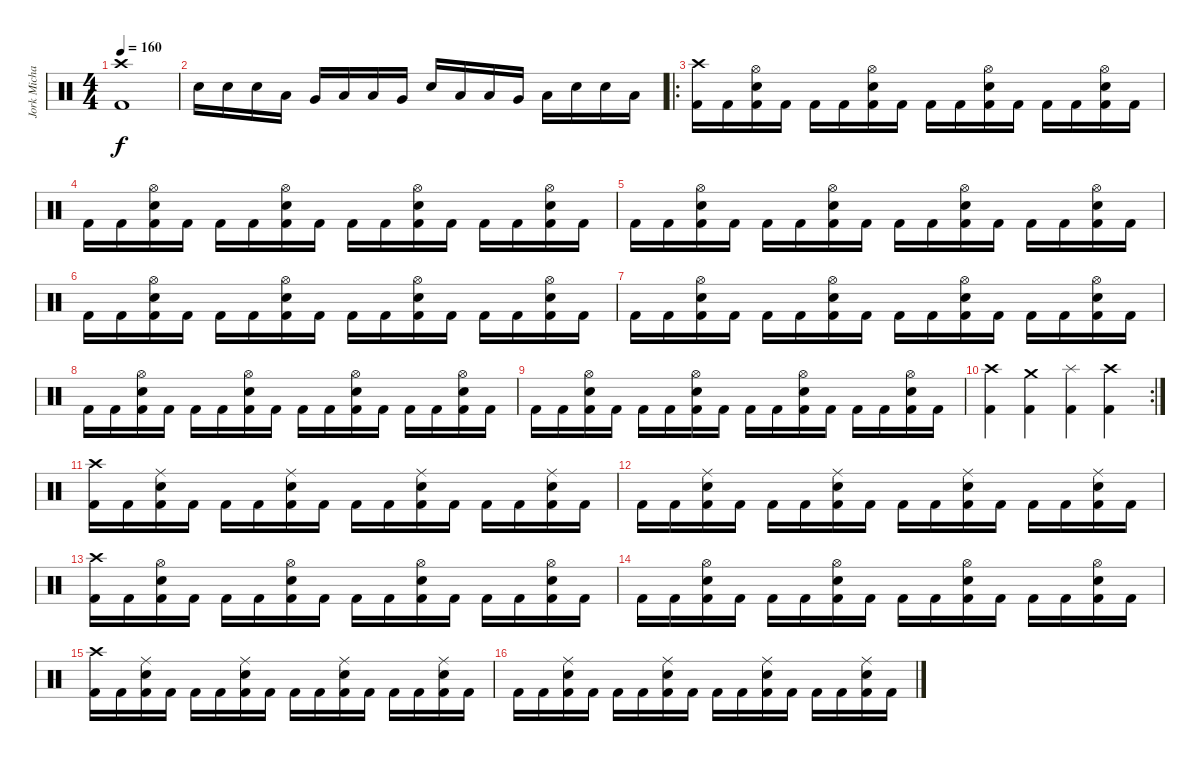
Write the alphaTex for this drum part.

\track ("Jork Michael" "Jork Micha") {instrument percussion}
\staff {score}
\articulation defaults
\ts (4 4)
\tempo 160
\clef neutral
\ks c
("Crash high (hit)" "Kick (hit) 2").1{dy f} |
"Electric Snare (hit)".16 "Electric Snare (hit)".16 "Electric Snare (hit)".16 "Low Floor Tom (hit)".16 "Very Low Tom (hit)".16 "Low Tom (hit)".16 "Low Floor Tom (hit)".16 "Very Low Tom (hit)".16 "Electric Snare (hit)".16 "Low Floor Tom (hit)".16 "Low Tom (hit)".16 "Very Low Tom (hit)".16 "Low Floor Tom (hit)".16 "Electric Snare (hit)".16 "Electric Snare (hit)".16 "Low Floor Tom (hit)".16 |
\ro
("Crash high (hit)" "Kick (hit) 2").16 "Kick (hit) 2".16 ("Hi-Hat (open)" "Electric Snare (hit)" "Kick (hit) 2").16 "Kick (hit) 2".16 "Kick (hit) 2".16 "Kick (hit) 2".16 ("Hi-Hat (open)" "Electric Snare (hit)" "Kick (hit) 2").16 "Kick (hit) 2".16 "Kick (hit) 2".16 "Kick (hit) 2".16 ("Hi-Hat (open)" "Electric Snare (hit)" "Kick (hit) 2").16 "Kick (hit) 2".16 "Kick (hit) 2".16 "Kick (hit) 2".16 ("Hi-Hat (open)" "Electric Snare (hit)" "Kick (hit) 2").16 "Kick (hit) 2".16 |
"Kick (hit) 2".16 "Kick (hit) 2".16 ("Hi-Hat (open)" "Electric Snare (hit)" "Kick (hit) 2").16 "Kick (hit) 2".16 "Kick (hit) 2".16 "Kick (hit) 2".16 ("Hi-Hat (open)" "Electric Snare (hit)" "Kick (hit) 2").16 "Kick (hit) 2".16 "Kick (hit) 2".16 "Kick (hit) 2".16 ("Hi-Hat (open)" "Electric Snare (hit)" "Kick (hit) 2").16 "Kick (hit) 2".16 "Kick (hit) 2".16 "Kick (hit) 2".16 ("Hi-Hat (open)" "Electric Snare (hit)" "Kick (hit) 2").16 "Kick (hit) 2".16 |
"Kick (hit) 2".16 "Kick (hit) 2".16 ("Hi-Hat (open)" "Electric Snare (hit)" "Kick (hit) 2").16 "Kick (hit) 2".16 "Kick (hit) 2".16 "Kick (hit) 2".16 ("Hi-Hat (open)" "Electric Snare (hit)" "Kick (hit) 2").16 "Kick (hit) 2".16 "Kick (hit) 2".16 "Kick (hit) 2".16 ("Hi-Hat (open)" "Electric Snare (hit)" "Kick (hit) 2").16 "Kick (hit) 2".16 "Kick (hit) 2".16 "Kick (hit) 2".16 ("Hi-Hat (open)" "Electric Snare (hit)" "Kick (hit) 2").16 "Kick (hit) 2".16 |
"Kick (hit) 2".16 "Kick (hit) 2".16 ("Hi-Hat (open)" "Electric Snare (hit)" "Kick (hit) 2").16 "Kick (hit) 2".16 "Kick (hit) 2".16 "Kick (hit) 2".16 ("Hi-Hat (open)" "Electric Snare (hit)" "Kick (hit) 2").16 "Kick (hit) 2".16 "Kick (hit) 2".16 "Kick (hit) 2".16 ("Hi-Hat (open)" "Electric Snare (hit)" "Kick (hit) 2").16 "Kick (hit) 2".16 "Kick (hit) 2".16 "Kick (hit) 2".16 ("Hi-Hat (open)" "Electric Snare (hit)" "Kick (hit) 2").16 "Kick (hit) 2".16 |
"Kick (hit) 2".16 "Kick (hit) 2".16 ("Hi-Hat (open)" "Electric Snare (hit)" "Kick (hit) 2").16 "Kick (hit) 2".16 "Kick (hit) 2".16 "Kick (hit) 2".16 ("Hi-Hat (open)" "Electric Snare (hit)" "Kick (hit) 2").16 "Kick (hit) 2".16 "Kick (hit) 2".16 "Kick (hit) 2".16 ("Hi-Hat (open)" "Electric Snare (hit)" "Kick (hit) 2").16 "Kick (hit) 2".16 "Kick (hit) 2".16 "Kick (hit) 2".16 ("Hi-Hat (open)" "Electric Snare (hit)" "Kick (hit) 2").16 "Kick (hit) 2".16 |
"Kick (hit) 2".16 "Kick (hit) 2".16 ("Hi-Hat (open)" "Electric Snare (hit)" "Kick (hit) 2").16 "Kick (hit) 2".16 "Kick (hit) 2".16 "Kick (hit) 2".16 ("Hi-Hat (open)" "Electric Snare (hit)" "Kick (hit) 2").16 "Kick (hit) 2".16 "Kick (hit) 2".16 "Kick (hit) 2".16 ("Hi-Hat (open)" "Electric Snare (hit)" "Kick (hit) 2").16 "Kick (hit) 2".16 "Kick (hit) 2".16 "Kick (hit) 2".16 ("Hi-Hat (open)" "Electric Snare (hit)" "Kick (hit) 2").16 "Kick (hit) 2".16 |
"Kick (hit) 2".16 "Kick (hit) 2".16 ("Hi-Hat (open)" "Electric Snare (hit)" "Kick (hit) 2").16 "Kick (hit) 2".16 "Kick (hit) 2".16 "Kick (hit) 2".16 ("Hi-Hat (open)" "Electric Snare (hit)" "Kick (hit) 2").16 "Kick (hit) 2".16 "Kick (hit) 2".16 "Kick (hit) 2".16 ("Hi-Hat (open)" "Electric Snare (hit)" "Kick (hit) 2").16 "Kick (hit) 2".16 "Kick (hit) 2".16 "Kick (hit) 2".16 ("Hi-Hat (open)" "Electric Snare (hit)" "Kick (hit) 2").16 "Kick (hit) 2".16 |
\rc 2
("Crash high (hit)" "Kick (hit) 2").4 ("Crash medium (hit)" "Kick (hit) 2").4 ("Splash (hit)" "Kick (hit) 2").4 ("Crash high (hit)" "Kick (hit) 2").4 |
("Crash high (hit)" "Kick (hit) 2").16 "Kick (hit) 2".16 ("Ride (middle)" "Electric Snare (hit)" "Kick (hit) 2").16 "Kick (hit) 2".16 "Kick (hit) 2".16 "Kick (hit) 2".16 ("Ride (middle)" "Electric Snare (hit)" "Kick (hit) 2").16 "Kick (hit) 2".16 "Kick (hit) 2".16 "Kick (hit) 2".16 ("Ride (middle)" "Electric Snare (hit)" "Kick (hit) 2").16 "Kick (hit) 2".16 "Kick (hit) 2".16 "Kick (hit) 2".16 ("Ride (middle)" "Electric Snare (hit)" "Kick (hit) 2").16 "Kick (hit) 2".16 |
"Kick (hit) 2".16 "Kick (hit) 2".16 ("Ride (middle)" "Electric Snare (hit)" "Kick (hit) 2").16 "Kick (hit) 2".16 "Kick (hit) 2".16 "Kick (hit) 2".16 ("Ride (middle)" "Electric Snare (hit)" "Kick (hit) 2").16 "Kick (hit) 2".16 "Kick (hit) 2".16 "Kick (hit) 2".16 ("Ride (middle)" "Electric Snare (hit)" "Kick (hit) 2").16 "Kick (hit) 2".16 "Kick (hit) 2".16 "Kick (hit) 2".16 ("Ride (middle)" "Electric Snare (hit)" "Kick (hit) 2").16 "Kick (hit) 2".16 |
("Crash high (hit)" "Kick (hit) 2").16 "Kick (hit) 2".16 ("Hi-Hat (open)" "Electric Snare (hit)" "Kick (hit) 2").16 "Kick (hit) 2".16 "Kick (hit) 2".16 "Kick (hit) 2".16 ("Hi-Hat (open)" "Electric Snare (hit)" "Kick (hit) 2").16 "Kick (hit) 2".16 "Kick (hit) 2".16 "Kick (hit) 2".16 ("Hi-Hat (open)" "Electric Snare (hit)" "Kick (hit) 2").16 "Kick (hit) 2".16 "Kick (hit) 2".16 "Kick (hit) 2".16 ("Hi-Hat (open)" "Electric Snare (hit)" "Kick (hit) 2").16 "Kick (hit) 2".16 |
"Kick (hit) 2".16 "Kick (hit) 2".16 ("Hi-Hat (open)" "Electric Snare (hit)" "Kick (hit) 2").16 "Kick (hit) 2".16 "Kick (hit) 2".16 "Kick (hit) 2".16 ("Hi-Hat (open)" "Electric Snare (hit)" "Kick (hit) 2").16 "Kick (hit) 2".16 "Kick (hit) 2".16 "Kick (hit) 2".16 ("Hi-Hat (open)" "Electric Snare (hit)" "Kick (hit) 2").16 "Kick (hit) 2".16 "Kick (hit) 2".16 "Kick (hit) 2".16 ("Hi-Hat (open)" "Electric Snare (hit)" "Kick (hit) 2").16 "Kick (hit) 2".16 |
("Crash high (hit)" "Kick (hit) 2").16 "Kick (hit) 2".16 ("Ride (middle)" "Electric Snare (hit)" "Kick (hit) 2").16 "Kick (hit) 2".16 "Kick (hit) 2".16 "Kick (hit) 2".16 ("Ride (middle)" "Electric Snare (hit)" "Kick (hit) 2").16 "Kick (hit) 2".16 "Kick (hit) 2".16 "Kick (hit) 2".16 ("Ride (middle)" "Electric Snare (hit)" "Kick (hit) 2").16 "Kick (hit) 2".16 "Kick (hit) 2".16 "Kick (hit) 2".16 ("Ride (middle)" "Electric Snare (hit)" "Kick (hit) 2").16 "Kick (hit) 2".16 |
"Kick (hit) 2".16 "Kick (hit) 2".16 ("Ride (middle)" "Electric Snare (hit)" "Kick (hit) 2").16 "Kick (hit) 2".16 "Kick (hit) 2".16 "Kick (hit) 2".16 ("Ride (middle)" "Electric Snare (hit)" "Kick (hit) 2").16 "Kick (hit) 2".16 "Kick (hit) 2".16 "Kick (hit) 2".16 ("Ride (middle)" "Electric Snare (hit)" "Kick (hit) 2").16 "Kick (hit) 2".16 "Kick (hit) 2".16 "Kick (hit) 2".16 ("Ride (middle)" "Electric Snare (hit)" "Kick (hit) 2").16 "Kick (hit) 2".16
